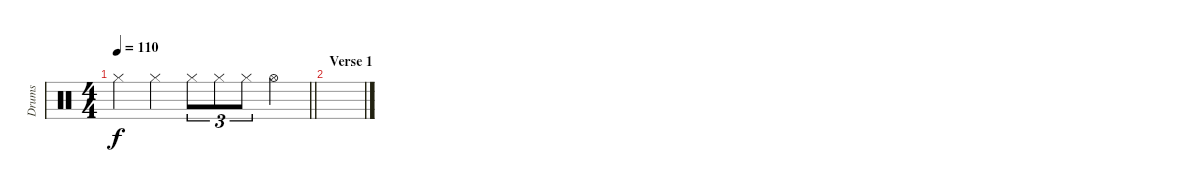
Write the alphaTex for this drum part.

\track ("Drums" "Drums") {instrument percussion}
\staff {score}
\articulation defaults
\ts (4 4)
\tempo 110
\clef neutral
\barLineRight lightlight
\ks c "Hi-Hat (closed)".4{dy f} "Hi-Hat (closed)".4 "Hi-Hat (closed)".8{tu (3 2)} "Hi-Hat (closed)".8{tu (3 2)} "Hi-Hat (closed)".8{tu (3 2)} "Hi-Hat (open)".4
|
\section ("" "Verse 1")
